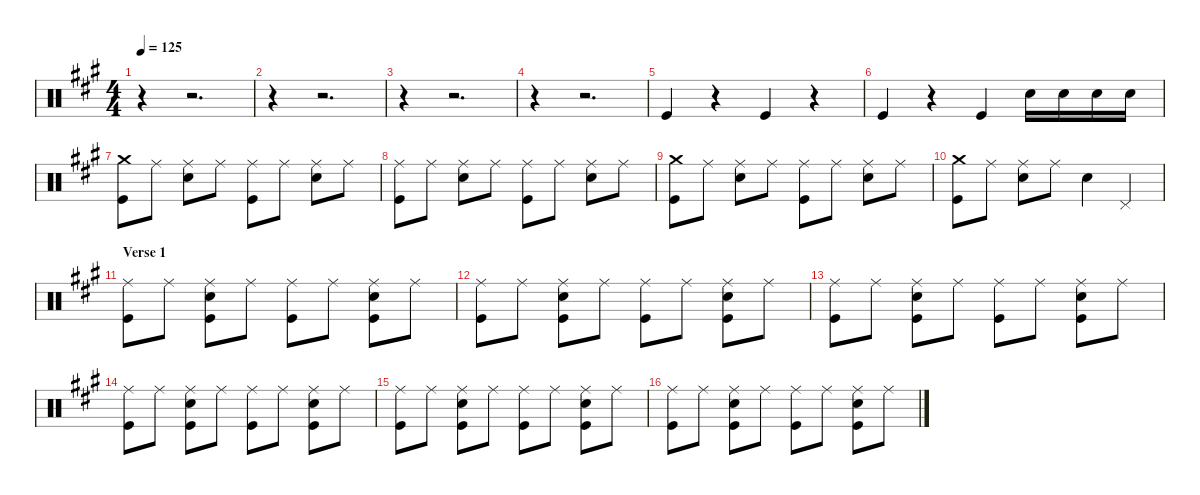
\defaultSystemsLayout 4
\hideDynamics
\bracketExtendMode nobrackets
\singleTrackTrackNamePolicy hidden
\multiTrackTrackNamePolicy hidden
\otherSystemsTrackNameOrientation horizontal
\track ("Drums" "drm.") {instrument percussion}
\staff {score}
\articulation defaults
\ts (4 4)
\tempo 125
\clef neutral
\ks a
r.4{dy f beam Down} r.2{d beam Down} |
r.4{beam Down} r.2{d beam Down} |
r.4{beam Down} r.2{d beam Down} |
r.4{beam Down} r.2{d beam Down} |
"Kick (hit)"{acc forcenatural}.4{beam Up} r.4{beam Up} "Kick (hit)"{acc forcenatural}.4{beam Up} r.4{beam Up} |
"Kick (hit)"{acc forcenatural}.4{beam Up} r.4{beam Up} "Kick (hit)"{acc forcenatural}.4{beam Up} "Snare (hit) 2"{acc forcenatural}.16{beam Down} "Snare (hit) 2"{acc forcenatural}.16{beam Down} "Snare (hit) 2"{acc forcenatural}.16{beam Down} "Snare (hit) 2"{acc forcenatural}.16{beam Down} |
("Crash medium (hit)"{acc forcenatural} "Kick (hit)"{acc forcenatural}).8{beam Down} "Ride (middle)"{acc forcenatural}.8{beam Down} ("Ride (middle)"{acc forcenatural} "Snare (hit) 2"{acc forcenatural}).8{beam Down} "Ride (middle)"{acc forcenatural}.8{beam Down} ("Ride (middle)"{acc forcenatural} "Kick (hit)"{acc forcenatural}).8{beam Down} "Ride (middle)"{acc forcenatural}.8{beam Down} ("Ride (middle)"{acc forcenatural} "Snare (hit) 2"{acc forcenatural}).8{beam Down} "Ride (middle)"{acc forcenatural}.8{beam Down} |
("Ride (middle)"{acc forcenatural} "Kick (hit)"{acc forcenatural}).8{beam Down} "Ride (middle)"{acc forcenatural}.8{beam Down} ("Ride (middle)"{acc forcenatural} "Snare (hit) 2"{acc forcenatural}).8{beam Down} "Ride (middle)"{acc forcenatural}.8{beam Down} ("Ride (middle)"{acc forcenatural} "Kick (hit)"{acc forcenatural}).8{beam Down} "Ride (middle)"{acc forcenatural}.8{beam Down} ("Ride (middle)"{acc forcenatural} "Snare (hit) 2"{acc forcenatural}).8{beam Down} "Ride (middle)"{acc forcenatural}.8{beam Down} |
("Crash medium (hit)"{acc forcenatural} "Kick (hit)"{acc forcenatural}).8{beam Down} "Ride (middle)"{acc forcenatural}.8{beam Down} ("Ride (middle)"{acc forcenatural} "Snare (hit) 2"{acc forcenatural}).8{beam Down} "Ride (middle)"{acc forcenatural}.8{beam Down} ("Ride (middle)"{acc forcenatural} "Kick (hit)"{acc forcenatural}).8{beam Down} "Ride (middle)"{acc forcenatural}.8{beam Down} ("Ride (middle)"{acc forcenatural} "Snare (hit) 2"{acc forcenatural}).8{beam Down} "Ride (middle)"{acc forcenatural}.8{beam Down} |
("Crash medium (hit)"{acc forcenatural} "Kick (hit)"{acc forcenatural}).8{beam Down} "Ride (middle)"{acc forcenatural}.8{beam Down} ("Ride (middle)"{acc forcenatural} "Snare (hit) 2"{acc forcenatural}).8{beam Down} "Ride (middle)"{acc forcenatural}.8{beam Down} "Snare (hit) 2"{acc forcenatural}.4{beam Down} "Pedal Hi-Hat (hit)"{acc forcenatural}.4{beam Up} |
\section ("" "Verse 1")
("Ride (middle)"{acc forcenatural} "Kick (hit)"{acc forcenatural}).8{beam Down} "Ride (middle)"{acc forcenatural}.8{beam Down} ("Ride (middle)"{acc forcenatural} "Snare (hit) 2"{acc forcenatural} "Kick (hit)"{acc forcenatural}).8{beam Down} "Ride (middle)"{acc forcenatural}.8{beam Down} ("Ride (middle)"{acc forcenatural} "Kick (hit)"{acc forcenatural}).8{beam Down} "Ride (middle)"{acc forcenatural}.8{beam Down} ("Ride (middle)"{acc forcenatural} "Snare (hit) 2"{acc forcenatural} "Kick (hit)"{acc forcenatural}).8{beam Down} "Ride (middle)"{acc forcenatural}.8{beam Down} |
("Ride (middle)"{acc forcenatural} "Kick (hit)"{acc forcenatural}).8{beam Down} "Ride (middle)"{acc forcenatural}.8{beam Down} ("Ride (middle)"{acc forcenatural} "Snare (hit) 2"{acc forcenatural} "Kick (hit)"{acc forcenatural}).8{beam Down} "Ride (middle)"{acc forcenatural}.8{beam Down} ("Ride (middle)"{acc forcenatural} "Kick (hit)"{acc forcenatural}).8{beam Down} "Ride (middle)"{acc forcenatural}.8{beam Down} ("Ride (middle)"{acc forcenatural} "Snare (hit) 2"{acc forcenatural} "Kick (hit)"{acc forcenatural}).8{beam Down} "Ride (middle)"{acc forcenatural}.8{beam Down} |
("Ride (middle)"{acc forcenatural} "Kick (hit)"{acc forcenatural}).8{beam Down} "Ride (middle)"{acc forcenatural}.8{beam Down} ("Ride (middle)"{acc forcenatural} "Snare (hit) 2"{acc forcenatural} "Kick (hit)"{acc forcenatural}).8{beam Down} "Ride (middle)"{acc forcenatural}.8{beam Down} ("Ride (middle)"{acc forcenatural} "Kick (hit)"{acc forcenatural}).8{beam Down} "Ride (middle)"{acc forcenatural}.8{beam Down} ("Ride (middle)"{acc forcenatural} "Snare (hit) 2"{acc forcenatural} "Kick (hit)"{acc forcenatural}).8{beam Down} "Ride (middle)"{acc forcenatural}.8{beam Down} |
("Ride (middle)"{acc forcenatural} "Kick (hit)"{acc forcenatural}).8{beam Down} "Ride (middle)"{acc forcenatural}.8{beam Down} ("Ride (middle)"{acc forcenatural} "Snare (hit) 2"{acc forcenatural} "Kick (hit)"{acc forcenatural}).8{beam Down} "Ride (middle)"{acc forcenatural}.8{beam Down} ("Ride (middle)"{acc forcenatural} "Kick (hit)"{acc forcenatural}).8{beam Down} "Ride (middle)"{acc forcenatural}.8{beam Down} ("Ride (middle)"{acc forcenatural} "Snare (hit) 2"{acc forcenatural} "Kick (hit)"{acc forcenatural}).8{beam Down} "Ride (middle)"{acc forcenatural}.8{beam Down} |
("Ride (middle)"{acc forcenatural} "Kick (hit)"{acc forcenatural}).8{beam Down} "Ride (middle)"{acc forcenatural}.8{beam Down} ("Ride (middle)"{acc forcenatural} "Snare (hit) 2"{acc forcenatural} "Kick (hit)"{acc forcenatural}).8{beam Down} "Ride (middle)"{acc forcenatural}.8{beam Down} ("Ride (middle)"{acc forcenatural} "Kick (hit)"{acc forcenatural}).8{beam Down} "Ride (middle)"{acc forcenatural}.8{beam Down} ("Ride (middle)"{acc forcenatural} "Snare (hit) 2"{acc forcenatural} "Kick (hit)"{acc forcenatural}).8{beam Down} "Ride (middle)"{acc forcenatural}.8{beam Down} |
("Ride (middle)"{acc forcenatural} "Kick (hit)"{acc forcenatural}).8{beam Down} "Ride (middle)"{acc forcenatural}.8{beam Down} ("Ride (middle)"{acc forcenatural} "Snare (hit) 2"{acc forcenatural} "Kick (hit)"{acc forcenatural}).8{beam Down} "Ride (middle)"{acc forcenatural}.8{beam Down} ("Ride (middle)"{acc forcenatural} "Kick (hit)"{acc forcenatural}).8{beam Down} "Ride (middle)"{acc forcenatural}.8{beam Down} ("Ride (middle)"{acc forcenatural} "Snare (hit) 2"{acc forcenatural} "Kick (hit)"{acc forcenatural}).8{beam Down} "Ride (middle)"{acc forcenatural}.8{beam Down}
